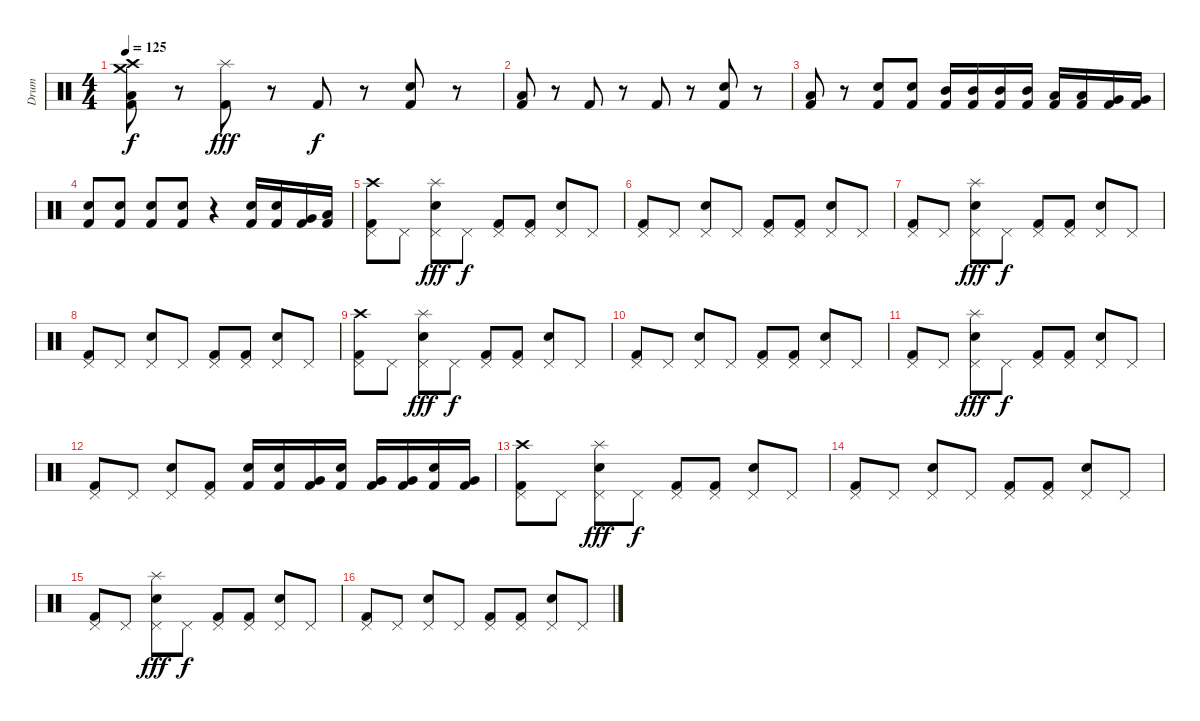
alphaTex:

\track ("Drum" "Drum") {instrument percussion}
\staff {score}
\articulation defaults
\ts (4 4)
\tempo 125
\clef neutral
\ks c
("Crash high (hit)" "Crash medium (hit)" "Low Floor Tom (hit)" "Kick (hit) 2").8{dy f} r.8 ("Splash (hit)" "Kick (hit) 2").8{dy fff} r.8 "Kick (hit) 2".8{dy f} r.8 ("Electric Snare (hit)" "Kick (hit) 2").8 r.8 |
("Low Floor Tom (hit)" "Kick (hit) 2").8 r.8 "Kick (hit) 2".8 r.8 "Kick (hit) 2".8 r.8 ("Electric Snare (hit)" "Kick (hit) 2").8 r.8 |
("Low Floor Tom (hit)" "Kick (hit) 2").8 r.8 ("Electric Snare (hit)" "Kick (hit) 2").8 ("Electric Snare (hit)" "Kick (hit) 2").8 ("Mid Tom (hit)" "Kick (hit) 2").16 ("Mid Tom (hit)" "Kick (hit) 2").16 ("Mid Tom (hit)" "Kick (hit) 2").16 ("Mid Tom (hit)" "Kick (hit) 2").16 ("Low Tom (hit)" "Kick (hit) 2").16 ("Low Tom (hit)" "Kick (hit) 2").16 ("Very Low Tom (hit)" "Kick (hit) 2").16 ("Very Low Tom (hit)" "Kick (hit) 2").16 |
("Electric Snare (hit)" "Kick (hit) 2").8 ("Electric Snare (hit)" "Kick (hit) 2").8 ("Electric Snare (hit)" "Kick (hit) 2").8 ("Electric Snare (hit)" "Kick (hit) 2").8 r.4 ("Electric Snare (hit)" "Kick (hit) 2").16 ("Electric Snare (hit)" "Kick (hit) 2").16 ("Very Low Tom (hit)" "Kick (hit) 2").16 ("Low Floor Tom (hit)" "Kick (hit) 2").16 |
("Crash high (hit)" "Pedal Hi-Hat (hit)" "Kick (hit) 2").8 "Pedal Hi-Hat (hit)".8 ("Electric Snare (hit)" "Splash (hit)" "Pedal Hi-Hat (hit)").8{dy fff} "Pedal Hi-Hat (hit)".8{dy f} ("Pedal Hi-Hat (hit)" "Kick (hit) 2").8 ("Pedal Hi-Hat (hit)" "Kick (hit) 2").8 ("Electric Snare (hit)" "Pedal Hi-Hat (hit)").8 "Pedal Hi-Hat (hit)".8 |
("Pedal Hi-Hat (hit)" "Kick (hit) 2").8 "Pedal Hi-Hat (hit)".8 ("Electric Snare (hit)" "Pedal Hi-Hat (hit)").8 "Pedal Hi-Hat (hit)".8 ("Pedal Hi-Hat (hit)" "Kick (hit) 2").8 ("Pedal Hi-Hat (hit)" "Kick (hit) 2").8 ("Electric Snare (hit)" "Pedal Hi-Hat (hit)").8 "Pedal Hi-Hat (hit)".8 |
("Pedal Hi-Hat (hit)" "Kick (hit) 2").8 "Pedal Hi-Hat (hit)".8 ("Electric Snare (hit)" "Splash (hit)" "Pedal Hi-Hat (hit)").8{dy fff} "Pedal Hi-Hat (hit)".8{dy f} ("Pedal Hi-Hat (hit)" "Kick (hit) 2").8 ("Pedal Hi-Hat (hit)" "Kick (hit) 2").8 ("Electric Snare (hit)" "Pedal Hi-Hat (hit)").8 "Pedal Hi-Hat (hit)".8 |
("Pedal Hi-Hat (hit)" "Kick (hit) 2").8 "Pedal Hi-Hat (hit)".8 ("Electric Snare (hit)" "Pedal Hi-Hat (hit)").8 "Pedal Hi-Hat (hit)".8 ("Pedal Hi-Hat (hit)" "Kick (hit) 2").8 ("Pedal Hi-Hat (hit)" "Kick (hit) 2").8 ("Electric Snare (hit)" "Pedal Hi-Hat (hit)").8 "Pedal Hi-Hat (hit)".8 |
("Crash high (hit)" "Pedal Hi-Hat (hit)" "Kick (hit) 2").8 "Pedal Hi-Hat (hit)".8 ("Electric Snare (hit)" "Splash (hit)" "Pedal Hi-Hat (hit)").8{dy fff} "Pedal Hi-Hat (hit)".8{dy f} ("Pedal Hi-Hat (hit)" "Kick (hit) 2").8 ("Pedal Hi-Hat (hit)" "Kick (hit) 2").8 ("Electric Snare (hit)" "Pedal Hi-Hat (hit)").8 "Pedal Hi-Hat (hit)".8 |
("Pedal Hi-Hat (hit)" "Kick (hit) 2").8 "Pedal Hi-Hat (hit)".8 ("Electric Snare (hit)" "Pedal Hi-Hat (hit)").8 "Pedal Hi-Hat (hit)".8 ("Pedal Hi-Hat (hit)" "Kick (hit) 2").8 ("Pedal Hi-Hat (hit)" "Kick (hit) 2").8 ("Electric Snare (hit)" "Pedal Hi-Hat (hit)").8 "Pedal Hi-Hat (hit)".8 |
("Pedal Hi-Hat (hit)" "Kick (hit) 2").8 "Pedal Hi-Hat (hit)".8 ("Electric Snare (hit)" "Splash (hit)" "Pedal Hi-Hat (hit)").8{dy fff} "Pedal Hi-Hat (hit)".8{dy f} ("Pedal Hi-Hat (hit)" "Kick (hit) 2").8 ("Pedal Hi-Hat (hit)" "Kick (hit) 2").8 ("Electric Snare (hit)" "Pedal Hi-Hat (hit)").8 "Pedal Hi-Hat (hit)".8 |
("Pedal Hi-Hat (hit)" "Kick (hit) 2").8 "Pedal Hi-Hat (hit)".8 ("Electric Snare (hit)" "Pedal Hi-Hat (hit)").8 ("Pedal Hi-Hat (hit)" "Kick (hit) 2").8 ("Electric Snare (hit)" "Kick (hit) 2").16 ("Electric Snare (hit)" "Kick (hit) 2").16 ("Very Low Tom (hit)" "Kick (hit) 2").16 ("Electric Snare (hit)" "Kick (hit) 2").16 ("Very Low Tom (hit)" "Kick (hit) 2").16 ("Very Low Tom (hit)" "Kick (hit) 2").16 ("Electric Snare (hit)" "Kick (hit) 2").16 ("Very Low Tom (hit)" "Kick (hit) 2").16 |
("Crash high (hit)" "Pedal Hi-Hat (hit)" "Kick (hit) 2").8 "Pedal Hi-Hat (hit)".8 ("Electric Snare (hit)" "Splash (hit)" "Pedal Hi-Hat (hit)").8{dy fff} "Pedal Hi-Hat (hit)".8{dy f} ("Pedal Hi-Hat (hit)" "Kick (hit) 2").8 ("Pedal Hi-Hat (hit)" "Kick (hit) 2").8 ("Electric Snare (hit)" "Pedal Hi-Hat (hit)").8 "Pedal Hi-Hat (hit)".8 |
("Pedal Hi-Hat (hit)" "Kick (hit) 2").8 "Pedal Hi-Hat (hit)".8 ("Electric Snare (hit)" "Pedal Hi-Hat (hit)").8 "Pedal Hi-Hat (hit)".8 ("Pedal Hi-Hat (hit)" "Kick (hit) 2").8 ("Pedal Hi-Hat (hit)" "Kick (hit) 2").8 ("Electric Snare (hit)" "Pedal Hi-Hat (hit)").8 "Pedal Hi-Hat (hit)".8 |
("Pedal Hi-Hat (hit)" "Kick (hit) 2").8 "Pedal Hi-Hat (hit)".8 ("Electric Snare (hit)" "Splash (hit)" "Pedal Hi-Hat (hit)").8{dy fff} "Pedal Hi-Hat (hit)".8{dy f} ("Pedal Hi-Hat (hit)" "Kick (hit) 2").8 ("Pedal Hi-Hat (hit)" "Kick (hit) 2").8 ("Electric Snare (hit)" "Pedal Hi-Hat (hit)").8 "Pedal Hi-Hat (hit)".8 |
("Pedal Hi-Hat (hit)" "Kick (hit) 2").8 "Pedal Hi-Hat (hit)".8 ("Electric Snare (hit)" "Pedal Hi-Hat (hit)").8 "Pedal Hi-Hat (hit)".8 ("Pedal Hi-Hat (hit)" "Kick (hit) 2").8 ("Pedal Hi-Hat (hit)" "Kick (hit) 2").8 ("Electric Snare (hit)" "Pedal Hi-Hat (hit)").8 "Pedal Hi-Hat (hit)".8
